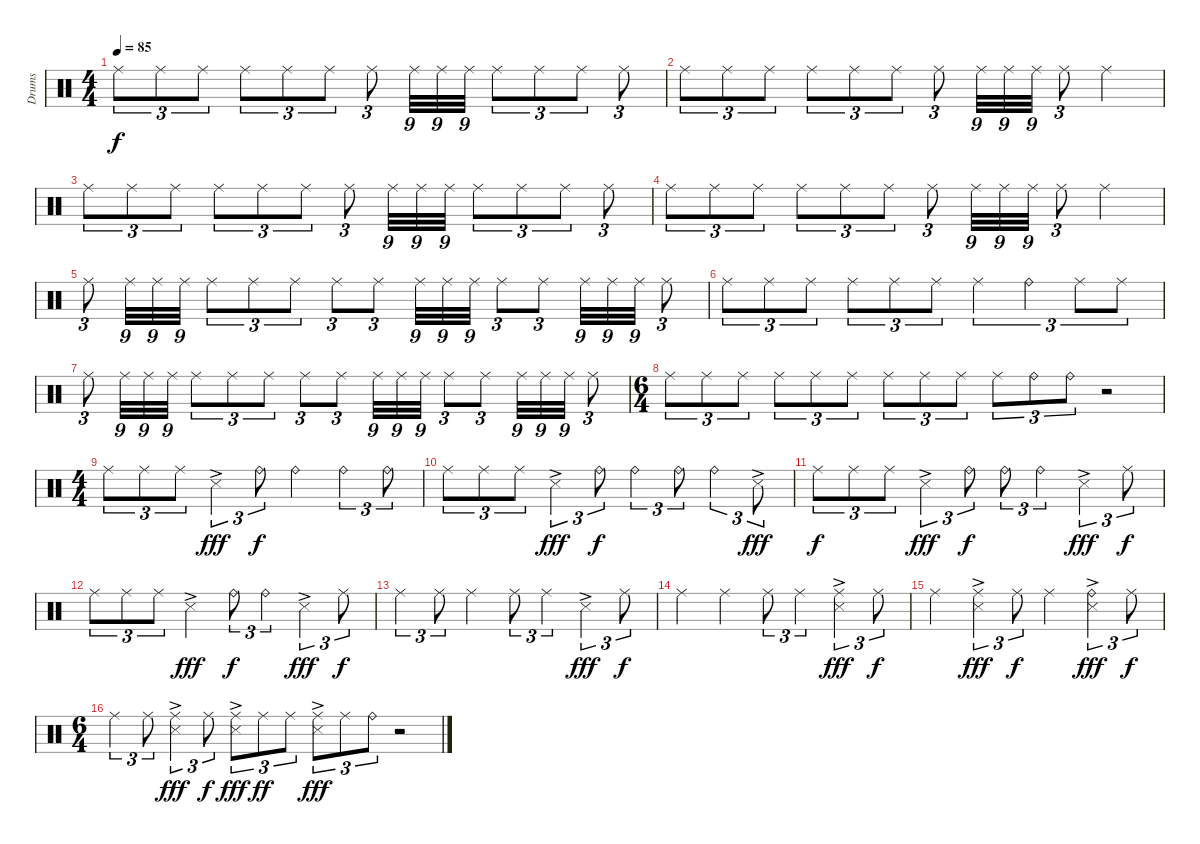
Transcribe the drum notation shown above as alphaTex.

\track ("Drums" "Drums") {instrument percussion}
\staff {score}
\articulation defaults
\ts (4 4)
\tempo 85
\clef neutral
\ks c "Ride (middle)".8{tu (3 2) dy f} "Ride (middle)".8{tu (3 2)} "Ride (middle)".8{tu (3 2)} "Ride (middle)".8{tu (3 2)} "Ride (middle)".8{tu (3 2)} "Ride (middle)".8{tu (3 2)} "Ride (middle)".8{tu (3 2)} "Ride (middle)".32{tu (9 8)} "Ride (middle)".32{tu (9 8)} "Ride (middle)".32{tu (9 8)} "Ride (middle)".8{tu (3 2)} "Ride (middle)".8{tu (3 2)} "Ride (middle)".8{tu (3 2)} "Ride (middle)".8{tu (3 2)}
|
"Ride (middle)".8{tu (3 2)} "Ride (middle)".8{tu (3 2)} "Ride (middle)".8{tu (3 2)} "Ride (middle)".8{tu (3 2)} "Ride (middle)".8{tu (3 2)} "Ride (middle)".8{tu (3 2)} "Ride (middle)".8{tu (3 2)} "Ride (middle)".32{tu (9 8)} "Ride (middle)".32{tu (9 8)} "Ride (middle)".32{tu (9 8)} "Ride (middle)".8{tu (3 2)} "Ride (middle)".4 |
"Ride (middle)".8{tu (3 2)} "Ride (middle)".8{tu (3 2)} "Ride (middle)".8{tu (3 2)} "Ride (middle)".8{tu (3 2)} "Ride (middle)".8{tu (3 2)} "Ride (middle)".8{tu (3 2)} "Ride (middle)".8{tu (3 2)} "Ride (middle)".32{tu (9 8)} "Ride (middle)".32{tu (9 8)} "Ride (middle)".32{tu (9 8)} "Ride (middle)".8{tu (3 2)} "Ride (middle)".8{tu (3 2)} "Ride (middle)".8{tu (3 2)} "Ride (middle)".8{tu (3 2)} |
"Ride (middle)".8{tu (3 2)} "Ride (middle)".8{tu (3 2)} "Ride (middle)".8{tu (3 2)} "Ride (middle)".8{tu (3 2)} "Ride (middle)".8{tu (3 2)} "Ride (middle)".8{tu (3 2)} "Ride (middle)".8{tu (3 2)} "Ride (middle)".32{tu (9 8)} "Ride (middle)".32{tu (9 8)} "Ride (middle)".32{tu (9 8)} "Ride (middle)".8{tu (3 2)} "Ride (middle)".4 |
"Ride (middle)".8{tu (3 2)} "Ride (middle)".32{tu (9 8)} "Ride (middle)".32{tu (9 8)} "Ride (middle)".32{tu (9 8)} "Ride (middle)".8{tu (3 2)} "Ride (middle)".8{tu (3 2)} "Ride (middle)".8{tu (3 2)} "Ride (middle)".8{tu (3 2)} "Ride (middle)".8{tu (3 2)} "Ride (middle)".32{tu (9 8)} "Ride (middle)".32{tu (9 8)} "Ride (middle)".32{tu (9 8)} "Ride (middle)".8{tu (3 2)} "Ride (middle)".8{tu (3 2)} "Ride (middle)".32{tu (9 8)} "Ride (middle)".32{tu (9 8)} "Ride (middle)".32{tu (9 8)} "Ride (middle)".8{tu (3 2)} |
"Ride (middle)".8{tu (3 2)} "Ride (middle)".8{tu (3 2)} "Ride (middle)".8{tu (3 2)} "Ride (middle)".8{tu (3 2)} "Ride (middle)".8{tu (3 2)} "Ride (middle)".8{tu (3 2)} "Ride (middle)".4{tu (3 2)} "Ride (bell)".4{tu (3 2)} "Ride (middle)".8{tu (3 2)} "Ride (middle)".8{tu (3 2)} |
"Ride (middle)".8{tu (3 2)} "Ride (middle)".32{tu (9 8)} "Ride (middle)".32{tu (9 8)} "Ride (middle)".32{tu (9 8)} "Ride (middle)".8{tu (3 2)} "Ride (middle)".8{tu (3 2)} "Ride (middle)".8{tu (3 2)} "Ride (middle)".8{tu (3 2)} "Ride (middle)".8{tu (3 2)} "Ride (middle)".32{tu (9 8)} "Ride (middle)".32{tu (9 8)} "Ride (middle)".32{tu (9 8)} "Ride (middle)".8{tu (3 2)} "Ride (middle)".8{tu (3 2)} "Ride (middle)".32{tu (9 8)} "Ride (middle)".32{tu (9 8)} "Ride (middle)".32{tu (9 8)} "Ride (middle)".8{tu (3 2)} |
\ts (6 4)
"Ride (middle)".8{tu (3 2)} "Ride (middle)".8{tu (3 2)} "Ride (middle)".8{tu (3 2)} "Ride (middle)".8{tu (3 2)} "Ride (middle)".8{tu (3 2)} "Ride (middle)".8{tu (3 2)} "Ride (middle)".8{tu (3 2)} "Ride (middle)".8{tu (3 2)} "Ride (middle)".8{tu (3 2)} "Ride (middle)".8{tu (3 2)} "Ride (bell)".8{tu (3 2)} "Ride (bell)".8{tu (3 2)} r.2 |
\ts (4 4)
"Ride (middle)".8{tu (3 2)} "Ride (middle)".8{tu (3 2)} "Ride (middle)".8{tu (3 2)} "Snare (side stick) 3"{ac}.4{tu (3 2) dy fff} "Ride (bell)".8{tu (3 2) dy f} "Ride (bell)".4 "Ride (bell)".4{tu (3 2)} "Ride (bell)".8{tu (3 2)} |
"Ride (middle)".8{tu (3 2)} "Ride (middle)".8{tu (3 2)} "Ride (middle)".8{tu (3 2)} "Snare (side stick) 3"{ac}.4{tu (3 2) dy fff} "Ride (bell)".8{tu (3 2) dy f} "Ride (bell)".4{tu (3 2)} "Ride (bell)".8{tu (3 2)} "Ride (bell)".4{tu (3 2)} "Snare (side stick) 3"{ac}.8{tu (3 2) dy fff} |
"Ride (middle)".8{tu (3 2) dy f} "Ride (middle)".8{tu (3 2)} "Ride (middle)".8{tu (3 2)} "Snare (side stick) 3"{ac}.4{tu (3 2) dy fff} "Ride (bell)".8{tu (3 2) dy f} "Ride (bell)".8{tu (3 2)} "Ride (bell)".4{tu (3 2)} "Snare (side stick) 3"{ac}.4{tu (3 2) dy fff} "Ride (middle)".8{tu (3 2) dy f} |
"Ride (middle)".8{tu (3 2)} "Ride (middle)".8{tu (3 2)} "Ride (middle)".8{tu (3 2)} "Snare (side stick) 3"{ac}.4{dy fff} "Ride (bell)".8{tu (3 2) dy f} "Ride (bell)".4{tu (3 2)} "Snare (side stick) 3"{ac}.4{tu (3 2) dy fff} "Ride (middle)".8{tu (3 2) dy f} |
"Ride (middle)".4{tu (3 2)} "Ride (middle)".8{tu (3 2)} "Ride (middle)".4 "Ride (middle)".8{tu (3 2)} "Ride (middle)".4{tu (3 2)} "Snare (side stick) 3"{ac}.4{tu (3 2) dy fff} "Ride (middle)".8{tu (3 2) dy f} |
"Ride (middle)".4 "Ride (middle)".4 "Ride (middle)".8{tu (3 2)} "Ride (middle)".4{tu (3 2)} ("Ride (middle)" "Snare (side stick) 3"{ac}).4{tu (3 2) dy fff} "Ride (middle)".8{tu (3 2) dy f} |
"Ride (middle)".4 ("Ride (middle)" "Snare (side stick) 3"{ac}).4{tu (3 2) dy fff} "Ride (middle)".8{tu (3 2) dy f} "Ride (middle)".4 ("Ride (bell)" "Snare (side stick) 3"{ac}).4{tu (3 2) dy fff} "Ride (middle)".8{tu (3 2) dy f} |
\ts (6 4)
"Ride (middle)".4{tu (3 2)} "Ride (middle)".8{tu (3 2)} ("Ride (middle)" "Snare (side stick) 3"{ac}).4{tu (3 2) dy fff} "Ride (middle)".8{tu (3 2) dy f} ("Ride (middle)" "Snare (side stick) 3"{ac}).8{tu (3 2) dy fff} "Ride (middle)".8{tu (3 2) dy ff} "Ride (middle)".8{tu (3 2)} ("Ride (middle)" "Snare (side stick) 3"{ac}).8{tu (3 2) dy fff} "Ride (middle)".8{tu (3 2)} "Ride (bell)".8{tu (3 2)} r.2
